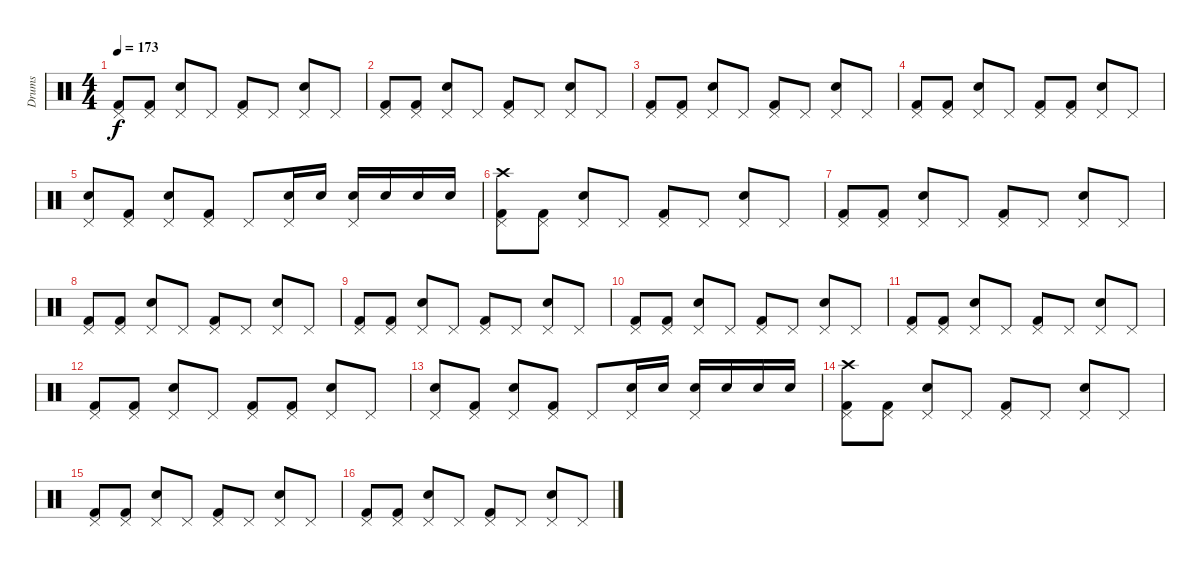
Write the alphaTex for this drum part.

\track ("Drums" "Drums") {instrument percussion}
\staff {score}
\articulation defaults
\ts (4 4)
\tempo 173
\clef neutral
\ks c
("Pedal Hi-Hat (hit)" "Kick (hit) 2").8{dy f} ("Pedal Hi-Hat (hit)" "Kick (hit) 2").8 ("Pedal Hi-Hat (hit)" "Snare (hit) 2").8 "Pedal Hi-Hat (hit)".8 ("Pedal Hi-Hat (hit)" "Kick (hit) 2").8 "Pedal Hi-Hat (hit)".8 ("Pedal Hi-Hat (hit)" "Snare (hit) 2").8 "Pedal Hi-Hat (hit)".8 |
("Pedal Hi-Hat (hit)" "Kick (hit) 2").8 ("Pedal Hi-Hat (hit)" "Kick (hit) 2").8 ("Pedal Hi-Hat (hit)" "Snare (hit) 2").8 "Pedal Hi-Hat (hit)".8 ("Pedal Hi-Hat (hit)" "Kick (hit) 2").8 "Pedal Hi-Hat (hit)".8 ("Pedal Hi-Hat (hit)" "Snare (hit) 2").8 "Pedal Hi-Hat (hit)".8 |
("Pedal Hi-Hat (hit)" "Kick (hit) 2").8 ("Pedal Hi-Hat (hit)" "Kick (hit) 2").8 ("Pedal Hi-Hat (hit)" "Snare (hit) 2").8 "Pedal Hi-Hat (hit)".8 ("Pedal Hi-Hat (hit)" "Kick (hit) 2").8 "Pedal Hi-Hat (hit)".8 ("Pedal Hi-Hat (hit)" "Snare (hit) 2").8 "Pedal Hi-Hat (hit)".8 |
("Pedal Hi-Hat (hit)" "Kick (hit) 2").8 ("Pedal Hi-Hat (hit)" "Kick (hit) 2").8 ("Pedal Hi-Hat (hit)" "Snare (hit) 2").8 "Pedal Hi-Hat (hit)".8 ("Pedal Hi-Hat (hit)" "Kick (hit) 2").8 ("Pedal Hi-Hat (hit)" "Kick (hit) 2").8 ("Pedal Hi-Hat (hit)" "Snare (hit) 2").8 "Pedal Hi-Hat (hit)".8 |
("Pedal Hi-Hat (hit)" "Snare (hit) 2").8 ("Pedal Hi-Hat (hit)" "Kick (hit) 2").8 ("Pedal Hi-Hat (hit)" "Snare (hit) 2").8 ("Pedal Hi-Hat (hit)" "Kick (hit) 2").8 "Pedal Hi-Hat (hit)".8 ("Pedal Hi-Hat (hit)" "Snare (hit) 2").16 "Snare (hit) 2".16 ("Pedal Hi-Hat (hit)" "Snare (hit) 2").16 "Snare (hit) 2".16 "Snare (hit) 2".16 "Snare (hit) 2".16 |
("Crash high (hit)" "Pedal Hi-Hat (hit)" "Kick (hit) 2").8 ("Pedal Hi-Hat (hit)" "Kick (hit) 2").8 ("Pedal Hi-Hat (hit)" "Snare (hit) 2").8 "Pedal Hi-Hat (hit)".8 ("Pedal Hi-Hat (hit)" "Kick (hit) 2").8 "Pedal Hi-Hat (hit)".8 ("Pedal Hi-Hat (hit)" "Snare (hit) 2").8 "Pedal Hi-Hat (hit)".8 |
("Pedal Hi-Hat (hit)" "Kick (hit) 2").8 ("Pedal Hi-Hat (hit)" "Kick (hit) 2").8 ("Pedal Hi-Hat (hit)" "Snare (hit) 2").8 "Pedal Hi-Hat (hit)".8 ("Pedal Hi-Hat (hit)" "Kick (hit) 2").8 "Pedal Hi-Hat (hit)".8 ("Pedal Hi-Hat (hit)" "Snare (hit) 2").8 "Pedal Hi-Hat (hit)".8 |
("Pedal Hi-Hat (hit)" "Kick (hit) 2").8 ("Pedal Hi-Hat (hit)" "Kick (hit) 2").8 ("Pedal Hi-Hat (hit)" "Snare (hit) 2").8 "Pedal Hi-Hat (hit)".8 ("Pedal Hi-Hat (hit)" "Kick (hit) 2").8 "Pedal Hi-Hat (hit)".8 ("Pedal Hi-Hat (hit)" "Snare (hit) 2").8 "Pedal Hi-Hat (hit)".8 |
("Pedal Hi-Hat (hit)" "Kick (hit) 2").8 ("Pedal Hi-Hat (hit)" "Kick (hit) 2").8 ("Pedal Hi-Hat (hit)" "Snare (hit) 2").8 "Pedal Hi-Hat (hit)".8 ("Pedal Hi-Hat (hit)" "Kick (hit) 2").8 "Pedal Hi-Hat (hit)".8 ("Pedal Hi-Hat (hit)" "Snare (hit) 2").8 "Pedal Hi-Hat (hit)".8 |
("Pedal Hi-Hat (hit)" "Kick (hit) 2").8 ("Pedal Hi-Hat (hit)" "Kick (hit) 2").8 ("Pedal Hi-Hat (hit)" "Snare (hit) 2").8 "Pedal Hi-Hat (hit)".8 ("Pedal Hi-Hat (hit)" "Kick (hit) 2").8 "Pedal Hi-Hat (hit)".8 ("Pedal Hi-Hat (hit)" "Snare (hit) 2").8 "Pedal Hi-Hat (hit)".8 |
("Pedal Hi-Hat (hit)" "Kick (hit) 2").8 ("Pedal Hi-Hat (hit)" "Kick (hit) 2").8 ("Pedal Hi-Hat (hit)" "Snare (hit) 2").8 "Pedal Hi-Hat (hit)".8 ("Pedal Hi-Hat (hit)" "Kick (hit) 2").8 "Pedal Hi-Hat (hit)".8 ("Pedal Hi-Hat (hit)" "Snare (hit) 2").8 "Pedal Hi-Hat (hit)".8 |
("Pedal Hi-Hat (hit)" "Kick (hit) 2").8 ("Pedal Hi-Hat (hit)" "Kick (hit) 2").8 ("Pedal Hi-Hat (hit)" "Snare (hit) 2").8 "Pedal Hi-Hat (hit)".8 ("Pedal Hi-Hat (hit)" "Kick (hit) 2").8 ("Pedal Hi-Hat (hit)" "Kick (hit) 2").8 ("Pedal Hi-Hat (hit)" "Snare (hit) 2").8 "Pedal Hi-Hat (hit)".8 |
("Pedal Hi-Hat (hit)" "Snare (hit) 2").8 ("Pedal Hi-Hat (hit)" "Kick (hit) 2").8 ("Pedal Hi-Hat (hit)" "Snare (hit) 2").8 ("Pedal Hi-Hat (hit)" "Kick (hit) 2").8 "Pedal Hi-Hat (hit)".8 ("Pedal Hi-Hat (hit)" "Snare (hit) 2").16 "Snare (hit) 2".16 ("Pedal Hi-Hat (hit)" "Snare (hit) 2").16 "Snare (hit) 2".16 "Snare (hit) 2".16 "Snare (hit) 2".16 |
("Crash high (hit)" "Pedal Hi-Hat (hit)" "Kick (hit) 2").8 ("Pedal Hi-Hat (hit)" "Kick (hit) 2").8 ("Pedal Hi-Hat (hit)" "Snare (hit) 2").8 "Pedal Hi-Hat (hit)".8 ("Pedal Hi-Hat (hit)" "Kick (hit) 2").8 "Pedal Hi-Hat (hit)".8 ("Pedal Hi-Hat (hit)" "Snare (hit) 2").8 "Pedal Hi-Hat (hit)".8 |
("Pedal Hi-Hat (hit)" "Kick (hit) 2").8 ("Pedal Hi-Hat (hit)" "Kick (hit) 2").8 ("Pedal Hi-Hat (hit)" "Snare (hit) 2").8 "Pedal Hi-Hat (hit)".8 ("Pedal Hi-Hat (hit)" "Kick (hit) 2").8 "Pedal Hi-Hat (hit)".8 ("Pedal Hi-Hat (hit)" "Snare (hit) 2").8 "Pedal Hi-Hat (hit)".8 |
("Pedal Hi-Hat (hit)" "Kick (hit) 2").8 ("Pedal Hi-Hat (hit)" "Kick (hit) 2").8 ("Pedal Hi-Hat (hit)" "Snare (hit) 2").8 "Pedal Hi-Hat (hit)".8 ("Pedal Hi-Hat (hit)" "Kick (hit) 2").8 "Pedal Hi-Hat (hit)".8 ("Pedal Hi-Hat (hit)" "Snare (hit) 2").8 "Pedal Hi-Hat (hit)".8
